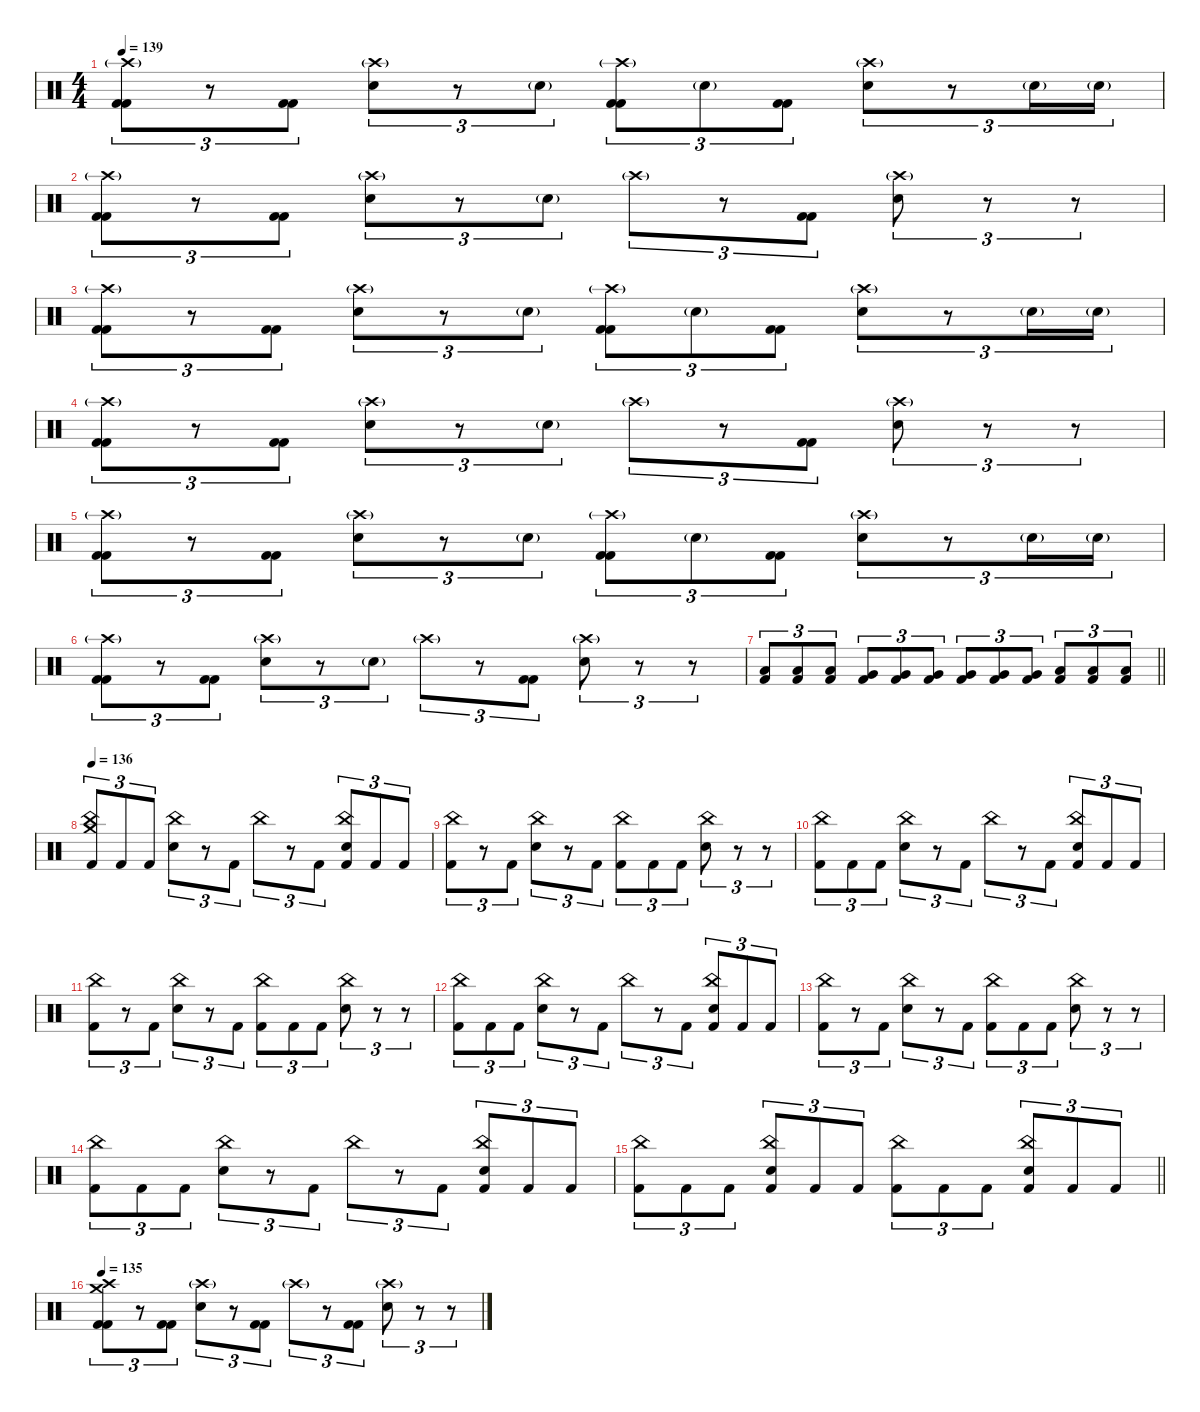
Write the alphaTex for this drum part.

\defaultSystemsLayout 4
\hideDynamics
\bracketExtendMode nobrackets
\singleTrackTrackNamePolicy hidden
\multiTrackTrackNamePolicy hidden
\otherSystemsTrackNameOrientation horizontal
\track ("Gene Hoglan" "drm.") {instrument percussion}
\staff {score}
\articulation defaults
\ts (4 4)
\tempo 139
\clef neutral
\ks c
("Crash high (hit)"{g} "Kick (hit) 2" "Kick (hit) 2").8{tu (3 2) dy f beam Down} r.8{tu (3 2) beam Down} ("Kick (hit) 2" "Kick (hit) 2").8{tu (3 2) beam Down} ("Crash high (hit)"{g} "Snare (hit) 2").8{tu (3 2) beam Down} r.8{tu (3 2) beam Down} "Snare (hit) 2"{g}.8{tu (3 2) dy mf beam Down} ("Crash high (hit)"{g} "Kick (hit) 2" "Kick (hit) 2").8{tu (3 2) dy f beam Down} "Snare (hit) 2"{g}.8{tu (3 2) dy mf beam Down} ("Kick (hit) 2" "Kick (hit) 2").8{tu (3 2) dy f beam Down} ("Crash high (hit)"{g} "Snare (hit) 2").8{tu (3 2) beam Down} r.8{tu (3 2) beam Down} "Snare (hit) 2"{g}.16{tu (3 2) dy mf beam Down} "Snare (hit) 2"{g}.16{tu (3 2) beam Down} |
("Crash high (hit)"{g} "Kick (hit) 2" "Kick (hit) 2").8{tu (3 2) dy f beam Down} r.8{tu (3 2) beam Down} ("Kick (hit) 2" "Kick (hit) 2").8{tu (3 2) beam Down} ("Crash high (hit)"{g} "Snare (hit) 2").8{tu (3 2) beam Down} r.8{tu (3 2) beam Down} "Snare (hit) 2"{g}.8{tu (3 2) dy mf beam Down} "Crash high (hit)"{g}.8{tu (3 2) beam Down} r.8{tu (3 2) beam Down} ("Kick (hit) 2" "Kick (hit) 2").8{tu (3 2) dy f beam Down} ("Crash high (hit)"{g} "Snare (hit) 2").8{tu (3 2) beam Down} r.8{tu (3 2) beam Down} r.8{tu (3 2) beam Down} |
("Crash high (hit)"{g} "Kick (hit) 2" "Kick (hit) 2").8{tu (3 2) beam Down} r.8{tu (3 2) beam Down} ("Kick (hit) 2" "Kick (hit) 2").8{tu (3 2) beam Down} ("Crash high (hit)"{g} "Snare (hit) 2").8{tu (3 2) beam Down} r.8{tu (3 2) beam Down} "Snare (hit) 2"{g}.8{tu (3 2) dy mf beam Down} ("Crash high (hit)"{g} "Kick (hit) 2" "Kick (hit) 2").8{tu (3 2) dy f beam Down} "Snare (hit) 2"{g}.8{tu (3 2) dy mf beam Down} ("Kick (hit) 2" "Kick (hit) 2").8{tu (3 2) dy f beam Down} ("Crash high (hit)"{g} "Snare (hit) 2").8{tu (3 2) beam Down} r.8{tu (3 2) beam Down} "Snare (hit) 2"{g}.16{tu (3 2) dy mf beam Down} "Snare (hit) 2"{g}.16{tu (3 2) beam Down} |
("Crash high (hit)"{g} "Kick (hit) 2" "Kick (hit) 2").8{tu (3 2) dy f beam Down} r.8{tu (3 2) beam Down} ("Kick (hit) 2" "Kick (hit) 2").8{tu (3 2) beam Down} ("Crash high (hit)"{g} "Snare (hit) 2").8{tu (3 2) beam Down} r.8{tu (3 2) beam Down} "Snare (hit) 2"{g}.8{tu (3 2) dy mf beam Down} "Crash high (hit)"{g}.8{tu (3 2) beam Down} r.8{tu (3 2) beam Down} ("Kick (hit) 2" "Kick (hit) 2").8{tu (3 2) dy f beam Down} ("Crash high (hit)"{g} "Snare (hit) 2").8{tu (3 2) beam Down} r.8{tu (3 2) beam Down} r.8{tu (3 2) beam Down} |
("Crash high (hit)"{g} "Kick (hit) 2" "Kick (hit) 2").8{tu (3 2) beam Down} r.8{tu (3 2) beam Down} ("Kick (hit) 2" "Kick (hit) 2").8{tu (3 2) beam Down} ("Crash high (hit)"{g} "Snare (hit) 2").8{tu (3 2) beam Down} r.8{tu (3 2) beam Down} "Snare (hit) 2"{g}.8{tu (3 2) dy mf beam Down} ("Crash high (hit)"{g} "Kick (hit) 2" "Kick (hit) 2").8{tu (3 2) dy f beam Down} "Snare (hit) 2"{g}.8{tu (3 2) dy mf beam Down} ("Kick (hit) 2" "Kick (hit) 2").8{tu (3 2) dy f beam Down} ("Crash high (hit)"{g} "Snare (hit) 2").8{tu (3 2) beam Down} r.8{tu (3 2) beam Down} "Snare (hit) 2"{g}.16{tu (3 2) dy mf beam Down} "Snare (hit) 2"{g}.16{tu (3 2) beam Down} |
("Crash high (hit)"{g} "Kick (hit) 2" "Kick (hit) 2").8{tu (3 2) dy f beam Down} r.8{tu (3 2) beam Down} ("Kick (hit) 2" "Kick (hit) 2").8{tu (3 2) beam Down} ("Crash high (hit)"{g} "Snare (hit) 2").8{tu (3 2) beam Down} r.8{tu (3 2) beam Down} "Snare (hit) 2"{g}.8{tu (3 2) dy mf beam Down} "Crash high (hit)"{g}.8{tu (3 2) beam Down} r.8{tu (3 2) beam Down} ("Kick (hit) 2" "Kick (hit) 2").8{tu (3 2) dy f beam Down} ("Crash high (hit)"{g} "Snare (hit) 2").8{tu (3 2) beam Down} r.8{tu (3 2) beam Down} r.8{tu (3 2) beam Down} |
\barLineRight lightlight
("Low Tom (hit)" "Kick (hit) 2").8{tu (3 2) beam Up} ("Low Tom (hit)" "Kick (hit) 2").8{tu (3 2) beam Up} ("Low Tom (hit)" "Kick (hit) 2").8{tu (3 2) beam Up} ("Very Low Tom (hit)" "Kick (hit) 2").8{tu (3 2) beam Up} ("Very Low Tom (hit)" "Kick (hit) 2").8{tu (3 2) beam Up} ("Very Low Tom (hit)" "Kick (hit) 2").8{tu (3 2) beam Up} ("Very Low Tom (hit)" "Kick (hit) 2").8{tu (3 2) beam Up} ("Very Low Tom (hit)" "Kick (hit) 2").8{tu (3 2) beam Up} ("Very Low Tom (hit)" "Kick (hit) 2").8{tu (3 2) beam Up} ("Low Floor Tom (hit)" "Kick (hit) 2").8{tu (3 2) beam Up} ("Low Floor Tom (hit)" "Kick (hit) 2").8{tu (3 2) beam Up} ("Low Floor Tom (hit)" "Kick (hit) 2").8{tu (3 2) beam Up} |
\tempo 136
("Crash medium (hit)" "China (hit)" "Kick (hit) 2").8{tu (3 2) beam Up} "Kick (hit) 2".8{tu (3 2) beam Up} "Kick (hit) 2".8{tu (3 2) beam Up} ("China (hit)" "Snare (hit) 2").8{tu (3 2) dy mf beam Down} r.8{tu (3 2) beam Down} "Kick (hit) 2".8{tu (3 2) dy f beam Down} "China (hit)".8{tu (3 2) dy mf beam Down} r.8{tu (3 2) beam Down} "Kick (hit) 2".8{tu (3 2) dy f beam Down} ("China (hit)" "Snare (hit) 2" "Kick (hit) 2").8{tu (3 2) dy mf beam Up} "Kick (hit) 2".8{tu (3 2) dy f beam Up} "Kick (hit) 2".8{tu (3 2) beam Up} |
("China (hit)" "Kick (hit) 2").8{tu (3 2) dy mf beam Down} r.8{tu (3 2) beam Down} "Kick (hit) 2".8{tu (3 2) dy f beam Down} ("China (hit)" "Snare (hit) 2").8{tu (3 2) dy mf beam Down} r.8{tu (3 2) beam Down} "Kick (hit) 2".8{tu (3 2) dy f beam Down} ("China (hit)" "Kick (hit) 2").8{tu (3 2) dy mf beam Down} "Kick (hit) 2".8{tu (3 2) dy f beam Down} "Kick (hit) 2".8{tu (3 2) beam Down} ("China (hit)" "Snare (hit) 2").8{tu (3 2) dy mf beam Down} r.8{tu (3 2) beam Down} r.8{tu (3 2) beam Down} |
("China (hit)" "Kick (hit) 2").8{tu (3 2) beam Down} "Kick (hit) 2".8{tu (3 2) dy f beam Down} "Kick (hit) 2".8{tu (3 2) beam Down} ("China (hit)" "Snare (hit) 2").8{tu (3 2) dy mf beam Down} r.8{tu (3 2) beam Down} "Kick (hit) 2".8{tu (3 2) dy f beam Down} "China (hit)".8{tu (3 2) dy mf beam Down} r.8{tu (3 2) beam Down} "Kick (hit) 2".8{tu (3 2) dy f beam Down} ("China (hit)" "Snare (hit) 2" "Kick (hit) 2").8{tu (3 2) dy mf beam Up} "Kick (hit) 2".8{tu (3 2) dy f beam Up} "Kick (hit) 2".8{tu (3 2) beam Up} |
("China (hit)" "Kick (hit) 2").8{tu (3 2) dy mf beam Down} r.8{tu (3 2) beam Down} "Kick (hit) 2".8{tu (3 2) dy f beam Down} ("China (hit)" "Snare (hit) 2").8{tu (3 2) dy mf beam Down} r.8{tu (3 2) beam Down} "Kick (hit) 2".8{tu (3 2) dy f beam Down} ("China (hit)" "Kick (hit) 2").8{tu (3 2) dy mf beam Down} "Kick (hit) 2".8{tu (3 2) dy f beam Down} "Kick (hit) 2".8{tu (3 2) beam Down} ("China (hit)" "Snare (hit) 2").8{tu (3 2) dy mf beam Down} r.8{tu (3 2) beam Down} r.8{tu (3 2) beam Down} |
("China (hit)" "Kick (hit) 2").8{tu (3 2) beam Down} "Kick (hit) 2".8{tu (3 2) dy f beam Down} "Kick (hit) 2".8{tu (3 2) beam Down} ("China (hit)" "Snare (hit) 2").8{tu (3 2) dy mf beam Down} r.8{tu (3 2) beam Down} "Kick (hit) 2".8{tu (3 2) dy f beam Down} "China (hit)".8{tu (3 2) dy mf beam Down} r.8{tu (3 2) beam Down} "Kick (hit) 2".8{tu (3 2) dy f beam Down} ("China (hit)" "Snare (hit) 2" "Kick (hit) 2").8{tu (3 2) dy mf beam Up} "Kick (hit) 2".8{tu (3 2) dy f beam Up} "Kick (hit) 2".8{tu (3 2) beam Up} |
("China (hit)" "Kick (hit) 2").8{tu (3 2) dy mf beam Down} r.8{tu (3 2) beam Down} "Kick (hit) 2".8{tu (3 2) dy f beam Down} ("China (hit)" "Snare (hit) 2").8{tu (3 2) dy mf beam Down} r.8{tu (3 2) beam Down} "Kick (hit) 2".8{tu (3 2) dy f beam Down} ("China (hit)" "Kick (hit) 2").8{tu (3 2) dy mf beam Down} "Kick (hit) 2".8{tu (3 2) dy f beam Down} "Kick (hit) 2".8{tu (3 2) beam Down} ("China (hit)" "Snare (hit) 2").8{tu (3 2) dy mf beam Down} r.8{tu (3 2) beam Down} r.8{tu (3 2) beam Down} |
("China (hit)" "Kick (hit) 2").8{tu (3 2) beam Down} "Kick (hit) 2".8{tu (3 2) dy f beam Down} "Kick (hit) 2".8{tu (3 2) beam Down} ("China (hit)" "Snare (hit) 2").8{tu (3 2) dy mf beam Down} r.8{tu (3 2) beam Down} "Kick (hit) 2".8{tu (3 2) dy f beam Down} "China (hit)".8{tu (3 2) dy mf beam Down} r.8{tu (3 2) beam Down} "Kick (hit) 2".8{tu (3 2) dy f beam Down} ("China (hit)" "Snare (hit) 2" "Kick (hit) 2").8{tu (3 2) dy mf beam Up} "Kick (hit) 2".8{tu (3 2) dy f beam Up} "Kick (hit) 2".8{tu (3 2) beam Up} |
\barLineRight lightlight
("China (hit)" "Kick (hit) 2").8{tu (3 2) dy mf beam Down} "Kick (hit) 2".8{tu (3 2) dy f beam Down} "Kick (hit) 2".8{tu (3 2) beam Down} ("China (hit)" "Snare (hit) 2" "Kick (hit) 2").8{tu (3 2) dy mf beam Up} "Kick (hit) 2".8{tu (3 2) dy f beam Up} "Kick (hit) 2".8{tu (3 2) beam Up} ("China (hit)" "Kick (hit) 2").8{tu (3 2) dy mf beam Down} "Kick (hit) 2".8{tu (3 2) dy f beam Down} "Kick (hit) 2".8{tu (3 2) beam Down} ("China (hit)" "Snare (hit) 2" "Kick (hit) 2").8{tu (3 2) dy mf beam Up} "Kick (hit) 2".8{tu (3 2) dy f beam Up} "Kick (hit) 2".8{tu (3 2) beam Up} |
\tempo 135
("Crash high (hit)" "Crash medium (hit)" "Kick (hit) 2" "Kick (hit) 2").8{tu (3 2) beam Down} r.8{tu (3 2) beam Down} ("Kick (hit) 2" "Kick (hit) 2").8{tu (3 2) beam Down} ("Crash high (hit)"{g} "Snare (hit) 2").8{tu (3 2) beam Down} r.8{tu (3 2) beam Down} ("Kick (hit) 2" "Kick (hit) 2").8{tu (3 2) beam Down} "Crash high (hit)"{g}.8{tu (3 2) dy mf beam Down} r.8{tu (3 2) beam Down} ("Kick (hit) 2" "Kick (hit) 2").8{tu (3 2) dy f beam Down} ("Crash high (hit)"{g} "Snare (hit) 2").8{tu (3 2) beam Down} r.8{tu (3 2) beam Down} r.8{tu (3 2) beam Down}
